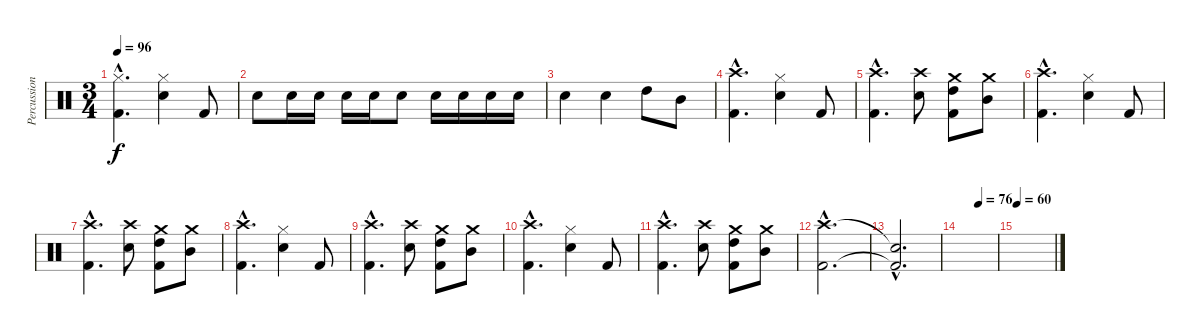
\track ("Percussions" "Percussion") {instrument percussion}
\staff {score}
\articulation defaults
\ts (3 4)
\tempo 96
\clef neutral
\ks c
("Hi-Hat (closed)"{hac} "Kick (hit) 2"{hac}).4{d dy f} ("Hi-Hat (closed)" "Snare (hit) 2").4 "Kick (hit) 2".8 |
"Snare (hit) 2".8 "Snare (hit) 2".16 "Snare (hit) 2".16 "Snare (hit) 2".16 "Snare (hit) 2".16 "Snare (hit) 2".8 "Snare (hit) 2".16 "Snare (hit) 2".16 "Snare (hit) 2".16 "Snare (hit) 2".16 |
"Snare (hit) 2".4 "Snare (hit) 2".4 "High Tom (hit)".8 "Mid Tom (hit)".8 |
("Crash high (hit)"{hac} "Kick (hit) 2"{hac}).4{d} ("Hi-Hat (closed)" "Snare (hit) 2").4 "Kick (hit) 2".8 |
("Crash high (hit)"{hac} "Kick (hit) 2"{hac}).4{d} ("Crash high (hit)" "Snare (hit) 2").8 ("Crash medium (hit)" "High Tom (hit)" "Kick (hit) 2").8 ("Crash medium (hit)" "Mid Tom (hit)").8 |
("Crash high (hit)"{hac} "Kick (hit) 2"{hac}).4{d} ("Hi-Hat (closed)" "Snare (hit) 2").4 "Kick (hit) 2".8 |
("Crash high (hit)"{hac} "Kick (hit) 2"{hac}).4{d} ("Crash high (hit)" "Snare (hit) 2").8 ("Crash medium (hit)" "High Tom (hit)" "Kick (hit) 2").8 ("Crash medium (hit)" "Mid Tom (hit)").8 |
("Crash high (hit)"{hac} "Kick (hit) 2"{hac}).4{d} ("Hi-Hat (closed)" "Snare (hit) 2").4 "Kick (hit) 2".8 |
("Crash high (hit)"{hac} "Kick (hit) 2"{hac}).4{d} ("Crash high (hit)" "Snare (hit) 2").8 ("Crash medium (hit)" "High Tom (hit)" "Kick (hit) 2").8 ("Crash medium (hit)" "Mid Tom (hit)").8 |
("Crash high (hit)"{hac} "Kick (hit) 2"{hac}).4{d} ("Hi-Hat (closed)" "Snare (hit) 2").4 "Kick (hit) 2".8 |
("Crash high (hit)"{hac} "Kick (hit) 2"{hac}).4{d} ("Crash high (hit)" "Snare (hit) 2").8 ("Crash medium (hit)" "High Tom (hit)" "Kick (hit) 2").8 ("Crash medium (hit)" "Mid Tom (hit)").8 |
("Crash high (hit)"{hac} "Kick (hit) 2"{hac}).2{d} |
("Snare (hit)"{hac t} "Kick (hit) 2"{hac t}).2{d} |
\tempo (76 0.5)
|
\tempo 60
